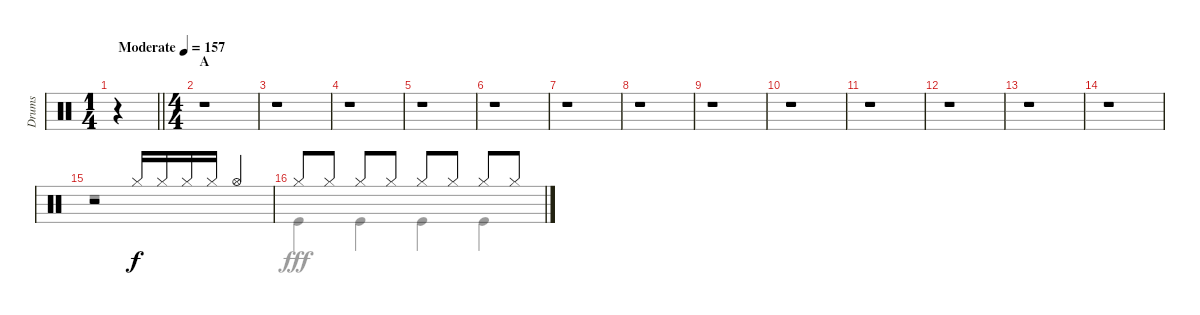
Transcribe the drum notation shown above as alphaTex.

\track ("Drums" "Drums") {instrument percussion}
\staff {score}
\articulation defaults
\voice
\ts (1 4)
\tempo (157 "Moderate")
\clef neutral
\barLineRight lightlight
\ks c
r.4{dy f} |
\ts (4 4)
\section ("" "A")
r.1 |
r.1 |
r.1 |
r.1 |
r.1 |
r.1 |
r.1 |
r.1 |
r.1 |
r.1 |
r.1 |
r.1 |
r.1 |
r.2 "Hi-Hat (closed)".16 "Hi-Hat (closed)".16 "Hi-Hat (closed)".16 "Hi-Hat (closed)".16 "Hi-Hat (open)".4 |
"Hi-Hat (closed)".8 "Hi-Hat (closed)".8 "Hi-Hat (closed)".8 "Hi-Hat (closed)".8 "Hi-Hat (closed)".8 "Hi-Hat (closed)".8 "Hi-Hat (closed)".8 "Hi-Hat (closed)".8
\voice
\clef neutral
\ottava regular
\simile none
\barLineRight lightlight
\ks c
r.4{dy fff} |
r.1 |
r.1 |
r.1 |
r.1 |
r.1 |
r.1 |
r.1 |
r.1 |
r.1 |
r.1 |
r.1 |
r.1 |
r.1 |
r.1 |
"Kick (hit)".4 "Kick (hit)".4 "Kick (hit)".4 "Kick (hit)".4
